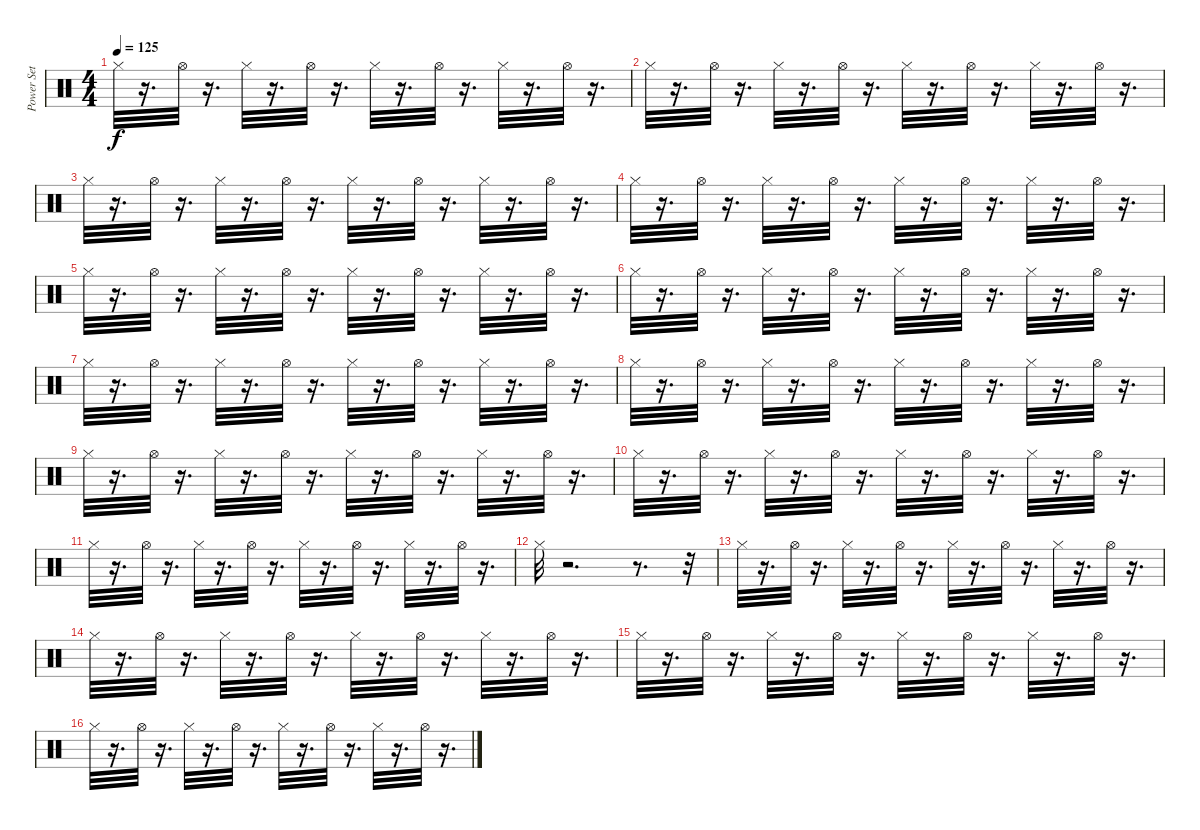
\track ("Power Set" "Power Set") {instrument percussion}
\staff {score}
\articulation defaults
\ts (4 4)
\tempo 125
\clef neutral
\ks c "Hi-Hat (closed)".32{dy f}
r.16{d} "Hi-Hat (open)".32 r.16{d} "Hi-Hat (closed)".32 r.16{d} "Hi-Hat (open)".32 r.16{d} "Hi-Hat (closed)".32 r.16{d} "Hi-Hat (open)".32 r.16{d} "Hi-Hat (closed)".32 r.16{d} "Hi-Hat (open)".32 r.16{d} |
"Hi-Hat (closed)".32 r.16{d} "Hi-Hat (open)".32 r.16{d} "Hi-Hat (closed)".32 r.16{d} "Hi-Hat (open)".32 r.16{d} "Hi-Hat (closed)".32 r.16{d} "Hi-Hat (open)".32 r.16{d} "Hi-Hat (closed)".32 r.16{d} "Hi-Hat (open)".32 r.16{d} |
"Hi-Hat (closed)".32 r.16{d} "Hi-Hat (open)".32 r.16{d} "Hi-Hat (closed)".32 r.16{d} "Hi-Hat (open)".32 r.16{d} "Hi-Hat (closed)".32 r.16{d} "Hi-Hat (open)".32 r.16{d} "Hi-Hat (closed)".32 r.16{d} "Hi-Hat (open)".32 r.16{d} |
"Hi-Hat (closed)".32 r.16{d} "Hi-Hat (open)".32 r.16{d} "Hi-Hat (closed)".32 r.16{d} "Hi-Hat (open)".32 r.16{d} "Hi-Hat (closed)".32 r.16{d} "Hi-Hat (open)".32 r.16{d} "Hi-Hat (closed)".32 r.16{d} "Hi-Hat (open)".32 r.16{d} |
"Hi-Hat (closed)".32 r.16{d} "Hi-Hat (open)".32 r.16{d} "Hi-Hat (closed)".32 r.16{d} "Hi-Hat (open)".32 r.16{d} "Hi-Hat (closed)".32 r.16{d} "Hi-Hat (open)".32 r.16{d} "Hi-Hat (closed)".32 r.16{d} "Hi-Hat (open)".32 r.16{d} |
"Hi-Hat (closed)".32 r.16{d} "Hi-Hat (open)".32 r.16{d} "Hi-Hat (closed)".32 r.16{d} "Hi-Hat (open)".32 r.16{d} "Hi-Hat (closed)".32 r.16{d} "Hi-Hat (open)".32 r.16{d} "Hi-Hat (closed)".32 r.16{d} "Hi-Hat (open)".32 r.16{d} |
"Hi-Hat (closed)".32 r.16{d} "Hi-Hat (open)".32 r.16{d} "Hi-Hat (closed)".32 r.16{d} "Hi-Hat (open)".32 r.16{d} "Hi-Hat (closed)".32 r.16{d} "Hi-Hat (open)".32 r.16{d} "Hi-Hat (closed)".32 r.16{d} "Hi-Hat (open)".32 r.16{d} |
"Hi-Hat (closed)".32 r.16{d} "Hi-Hat (open)".32 r.16{d} "Hi-Hat (closed)".32 r.16{d} "Hi-Hat (open)".32 r.16{d} "Hi-Hat (closed)".32 r.16{d} "Hi-Hat (open)".32 r.16{d} "Hi-Hat (closed)".32 r.16{d} "Hi-Hat (open)".32 r.16{d} |
"Hi-Hat (closed)".32 r.16{d} "Hi-Hat (open)".32 r.16{d} "Hi-Hat (closed)".32 r.16{d} "Hi-Hat (open)".32 r.16{d} "Hi-Hat (closed)".32 r.16{d} "Hi-Hat (open)".32 r.16{d} "Hi-Hat (closed)".32 r.16{d} "Hi-Hat (open)".32 r.16{d} |
"Hi-Hat (closed)".32 r.16{d} "Hi-Hat (open)".32 r.16{d} "Hi-Hat (closed)".32 r.16{d} "Hi-Hat (open)".32 r.16{d} "Hi-Hat (closed)".32 r.16{d} "Hi-Hat (open)".32 r.16{d} "Hi-Hat (closed)".32 r.16{d} "Hi-Hat (open)".32 r.16{d} |
"Hi-Hat (closed)".32 r.16{d} "Hi-Hat (open)".32 r.16{d} "Hi-Hat (closed)".32 r.16{d} "Hi-Hat (open)".32 r.16{d} "Hi-Hat (closed)".32 r.16{d} "Hi-Hat (open)".32 r.16{d} "Hi-Hat (closed)".32 r.16{d} "Hi-Hat (open)".32 r.16{d} |
"Hi-Hat (closed)".32 r.2{d} r.8{d} r.32 |
"Hi-Hat (closed)".32 r.16{d} "Hi-Hat (open)".32 r.16{d} "Hi-Hat (closed)".32 r.16{d} "Hi-Hat (open)".32 r.16{d} "Hi-Hat (closed)".32 r.16{d} "Hi-Hat (open)".32 r.16{d} "Hi-Hat (closed)".32 r.16{d} "Hi-Hat (open)".32 r.16{d} |
"Hi-Hat (closed)".32 r.16{d} "Hi-Hat (open)".32 r.16{d} "Hi-Hat (closed)".32 r.16{d} "Hi-Hat (open)".32 r.16{d} "Hi-Hat (closed)".32 r.16{d} "Hi-Hat (open)".32 r.16{d} "Hi-Hat (closed)".32 r.16{d} "Hi-Hat (open)".32 r.16{d} |
"Hi-Hat (closed)".32 r.16{d} "Hi-Hat (open)".32 r.16{d} "Hi-Hat (closed)".32 r.16{d} "Hi-Hat (open)".32 r.16{d} "Hi-Hat (closed)".32 r.16{d} "Hi-Hat (open)".32 r.16{d} "Hi-Hat (closed)".32 r.16{d} "Hi-Hat (open)".32 r.16{d} |
"Hi-Hat (closed)".32 r.16{d} "Hi-Hat (open)".32 r.16{d} "Hi-Hat (closed)".32 r.16{d} "Hi-Hat (open)".32 r.16{d} "Hi-Hat (closed)".32 r.16{d} "Hi-Hat (open)".32 r.16{d} "Hi-Hat (closed)".32 r.16{d} "Hi-Hat (open)".32 r.16{d}
